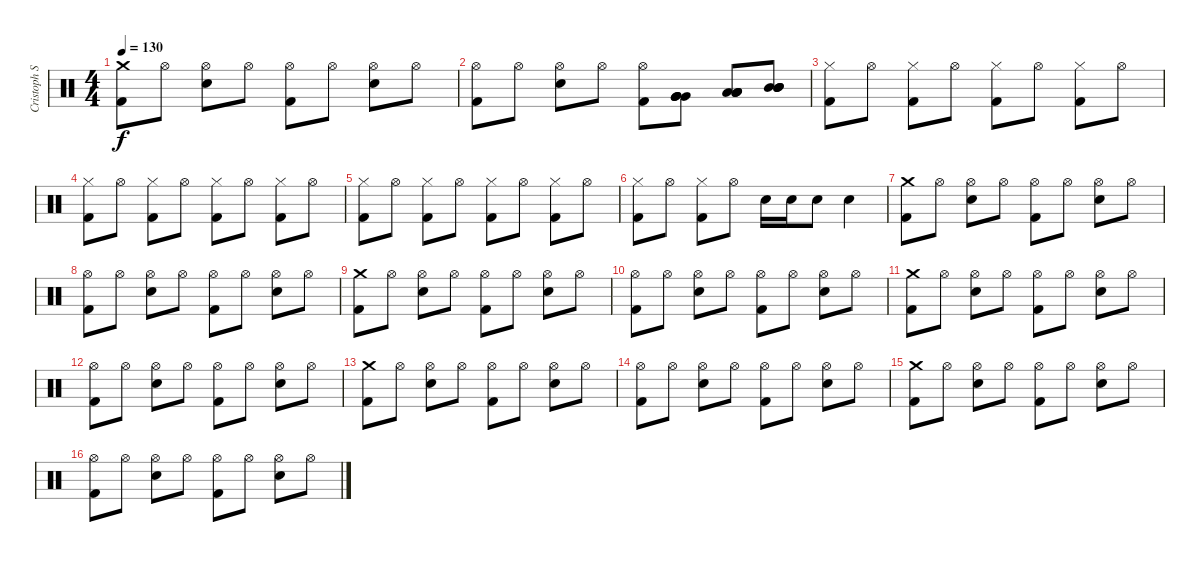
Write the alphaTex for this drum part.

\track ("Cristoph Schneider" "Cristoph S") {instrument percussion}
\staff {score}
\articulation defaults
\ts (4 4)
\tempo 130
\clef neutral
\ks c
("Crash medium (hit)" "Kick (hit) 2").8{dy f} "Hi-Hat (open)".8 ("Hi-Hat (open)" "Electric Snare (hit)").8 "Hi-Hat (open)".8 ("Hi-Hat (open)" "Kick (hit) 2").8 "Hi-Hat (open)".8 ("Hi-Hat (open)" "Electric Snare (hit)").8 "Hi-Hat (open)".8 |
("Hi-Hat (open)" "Kick (hit) 2").8 "Hi-Hat (open)".8 ("Hi-Hat (open)" "Electric Snare (hit)").8 "Hi-Hat (open)".8 ("Hi-Hat (open)" "Kick (hit) 2").8 ("Very Low Tom (hit)" "Very Low Tom (hit)" "Very Low Tom (hit)" "Very Low Tom (hit)").8 ("Low Floor Tom (hit)" "Low Floor Tom (hit)" "Low Floor Tom (hit)" "Low Floor Tom (hit)").8 ("Mid Tom (hit)" "Mid Tom (hit)" "Mid Tom (hit)" "Mid Tom (hit)").8 |
("Hi-Hat (closed)" "Kick (hit) 2").8 "Hi-Hat (open)".8 ("Hi-Hat (closed)" "Kick (hit) 2").8 "Hi-Hat (open)".8 ("Hi-Hat (closed)" "Kick (hit) 2").8 "Hi-Hat (open)".8 ("Hi-Hat (closed)" "Kick (hit) 2").8 "Hi-Hat (open)".8 |
("Hi-Hat (closed)" "Kick (hit) 2").8 "Hi-Hat (open)".8 ("Hi-Hat (closed)" "Kick (hit) 2").8 "Hi-Hat (open)".8 ("Hi-Hat (closed)" "Kick (hit) 2").8 "Hi-Hat (open)".8 ("Hi-Hat (closed)" "Kick (hit) 2").8 "Hi-Hat (open)".8 |
("Hi-Hat (closed)" "Kick (hit) 2").8 "Hi-Hat (open)".8 ("Hi-Hat (closed)" "Kick (hit) 2").8 "Hi-Hat (open)".8 ("Hi-Hat (closed)" "Kick (hit) 2").8 "Hi-Hat (open)".8 ("Hi-Hat (closed)" "Kick (hit) 2").8 "Hi-Hat (open)".8 |
("Hi-Hat (closed)" "Kick (hit) 2").8 "Hi-Hat (open)".8 ("Hi-Hat (closed)" "Kick (hit) 2").8 "Hi-Hat (open)".8 "Electric Snare (hit)".16 "Electric Snare (hit)".16 "Electric Snare (hit)".8 "Electric Snare (hit)".4 |
("Crash medium (hit)" "Kick (hit) 2").8 "Hi-Hat (open)".8 ("Hi-Hat (open)" "Electric Snare (hit)").8 "Hi-Hat (open)".8 ("Hi-Hat (open)" "Kick (hit) 2").8 "Hi-Hat (open)".8 ("Hi-Hat (open)" "Electric Snare (hit)").8 "Hi-Hat (open)".8 |
("Hi-Hat (open)" "Kick (hit) 2").8 "Hi-Hat (open)".8 ("Hi-Hat (open)" "Electric Snare (hit)").8 "Hi-Hat (open)".8 ("Hi-Hat (open)" "Kick (hit) 2").8 "Hi-Hat (open)".8 ("Hi-Hat (open)" "Electric Snare (hit)").8 "Hi-Hat (open)".8 |
("Crash medium (hit)" "Kick (hit) 2").8 "Hi-Hat (open)".8 ("Hi-Hat (open)" "Electric Snare (hit)").8 "Hi-Hat (open)".8 ("Hi-Hat (open)" "Kick (hit) 2").8 "Hi-Hat (open)".8 ("Hi-Hat (open)" "Electric Snare (hit)").8 "Hi-Hat (open)".8 |
("Hi-Hat (open)" "Kick (hit) 2").8 "Hi-Hat (open)".8 ("Hi-Hat (open)" "Electric Snare (hit)").8 "Hi-Hat (open)".8 ("Hi-Hat (open)" "Kick (hit) 2").8 "Hi-Hat (open)".8 ("Hi-Hat (open)" "Electric Snare (hit)").8 "Hi-Hat (open)".8 |
("Crash medium (hit)" "Kick (hit) 2").8 "Hi-Hat (open)".8 ("Hi-Hat (open)" "Electric Snare (hit)").8 "Hi-Hat (open)".8 ("Hi-Hat (open)" "Kick (hit) 2").8 "Hi-Hat (open)".8 ("Hi-Hat (open)" "Electric Snare (hit)").8 "Hi-Hat (open)".8 |
("Hi-Hat (open)" "Kick (hit) 2").8 "Hi-Hat (open)".8 ("Hi-Hat (open)" "Electric Snare (hit)").8 "Hi-Hat (open)".8 ("Hi-Hat (open)" "Kick (hit) 2").8 "Hi-Hat (open)".8 ("Hi-Hat (open)" "Electric Snare (hit)").8 "Hi-Hat (open)".8 |
("Crash medium (hit)" "Kick (hit) 2").8 "Hi-Hat (open)".8 ("Hi-Hat (open)" "Electric Snare (hit)").8 "Hi-Hat (open)".8 ("Hi-Hat (open)" "Kick (hit) 2").8 "Hi-Hat (open)".8 ("Hi-Hat (open)" "Electric Snare (hit)").8 "Hi-Hat (open)".8 |
("Hi-Hat (open)" "Kick (hit) 2").8 "Hi-Hat (open)".8 ("Hi-Hat (open)" "Electric Snare (hit)").8 "Hi-Hat (open)".8 ("Hi-Hat (open)" "Kick (hit) 2").8 "Hi-Hat (open)".8 ("Hi-Hat (open)" "Electric Snare (hit)").8 "Hi-Hat (open)".8 |
("Crash medium (hit)" "Kick (hit) 2").8 "Hi-Hat (open)".8 ("Hi-Hat (open)" "Electric Snare (hit)").8 "Hi-Hat (open)".8 ("Hi-Hat (open)" "Kick (hit) 2").8 "Hi-Hat (open)".8 ("Hi-Hat (open)" "Electric Snare (hit)").8 "Hi-Hat (open)".8 |
("Hi-Hat (open)" "Kick (hit) 2").8 "Hi-Hat (open)".8 ("Hi-Hat (open)" "Electric Snare (hit)").8 "Hi-Hat (open)".8 ("Hi-Hat (open)" "Kick (hit) 2").8 "Hi-Hat (open)".8 ("Hi-Hat (open)" "Electric Snare (hit)").8 "Hi-Hat (open)".8
